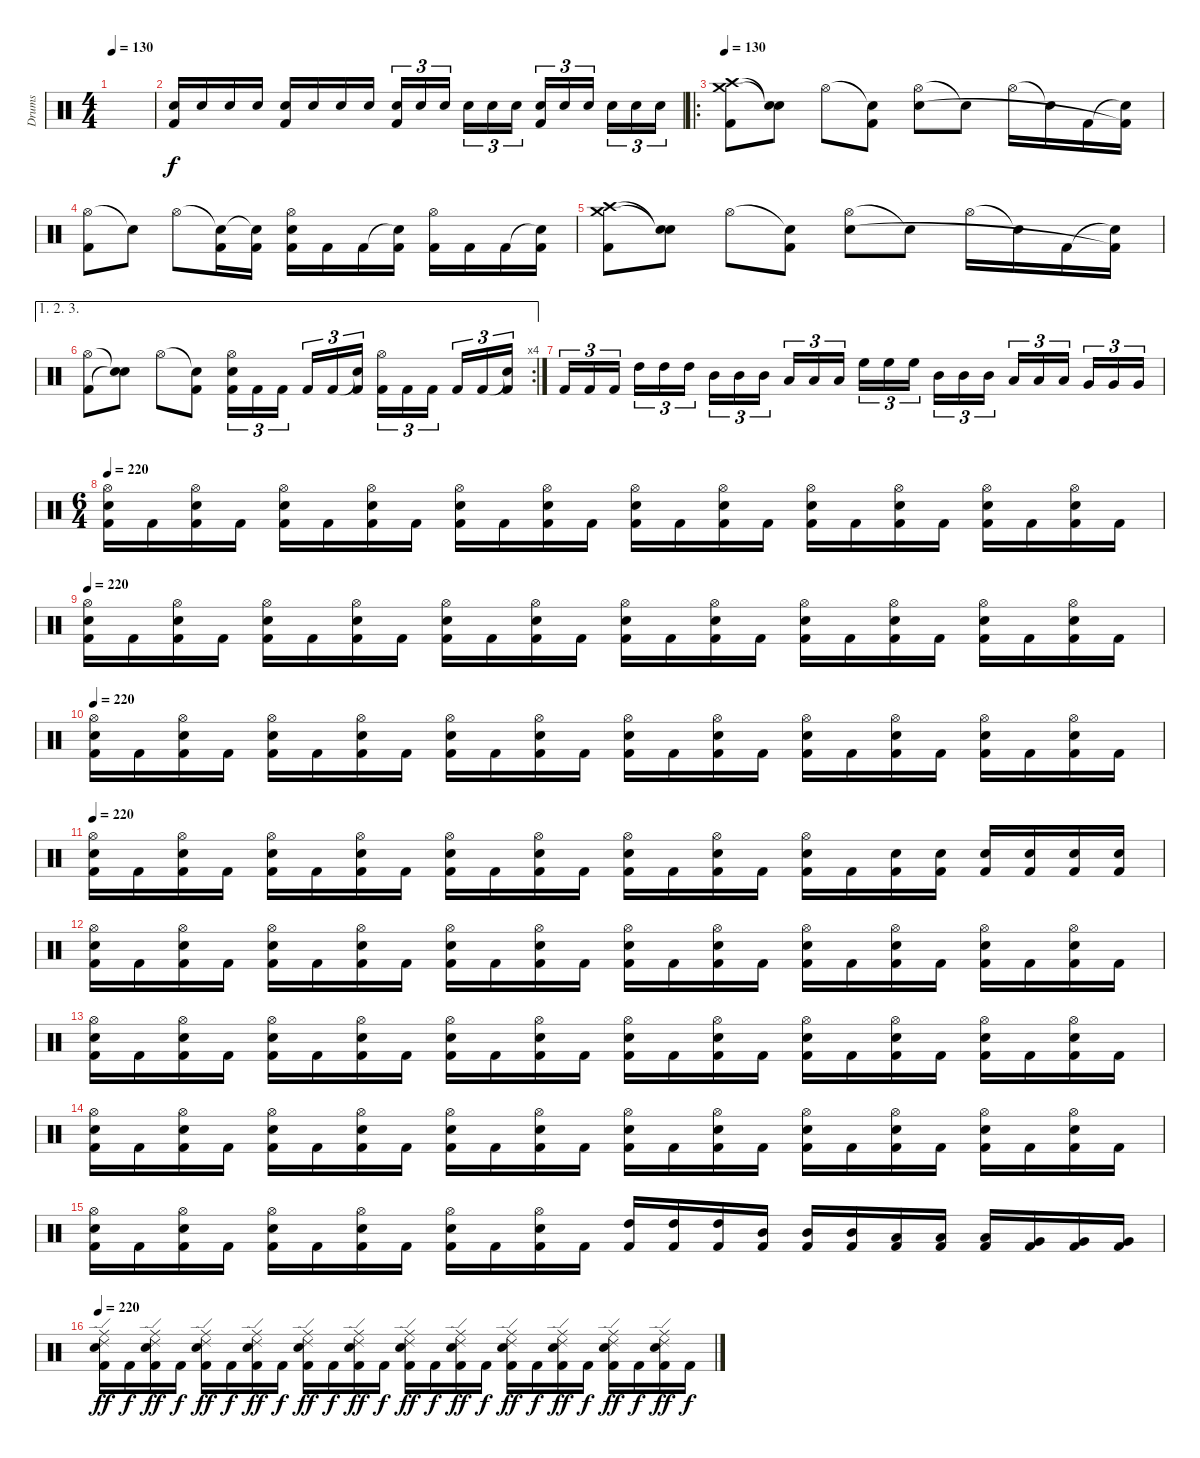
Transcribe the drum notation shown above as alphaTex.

\track ("Drums" "Drums") {instrument percussion}
\staff {score}
\articulation defaults
\ts (4 4)
\tempo 130
\clef neutral
\ks c
|
("Snare (hit) 2" "Kick (hit) 2").16 "Snare (hit) 2".16 "Snare (hit) 2".16 "Snare (hit) 2".16 ("Snare (hit) 2" "Kick (hit) 2").16 "Snare (hit) 2".16 "Snare (hit) 2".16 "Snare (hit) 2".16 ("Snare (hit) 2" "Kick (hit) 2").16{tu (3 2)} "Snare (hit) 2".16{tu (3 2)} "Snare (hit) 2".16{tu (3 2)} "Snare (hit) 2".16{tu (3 2)} "Snare (hit) 2".16{tu (3 2)} "Snare (hit) 2".16{tu (3 2)} ("Snare (hit) 2" "Kick (hit) 2").16{tu (3 2)} "Snare (hit) 2".16{tu (3 2)} "Snare (hit) 2".16{tu (3 2)} "Snare (hit) 2".16{tu (3 2)} "Snare (hit) 2".16{tu (3 2)} "Snare (hit) 2".16{tu (3 2)} |
\ro
\tempo 130
("Crash high (hit)" "Crash medium (hit)" "Kick (hit) 2").8 ("Snare (hit)"{t} "Snare (hit)"{t}).8 "Hi-Hat (open)".8 ("Snare (hit)"{t} "Kick (hit) 2").8 ("Hi-Hat (open)" "Snare (hit) 2").8 "Snare (hit)"{t}.8 "Hi-Hat (open)".16 "Snare (hit)"{t}.16 "Kick (hit) 2".16 ("Snare (hit)"{t} "Kick (hit) 2"{t}).16 |
("Hi-Hat (open)" "Kick (hit) 2").8 "Snare (hit)"{t}.8 "Hi-Hat (open)".8 ("Snare (hit)"{t} "Kick (hit) 2").16 ("Snare (hit)"{t} "Kick (hit) 2").16 ("Hi-Hat (open)" "Snare (hit) 2" "Kick (hit) 2").16 "Kick (hit) 2".16 "Kick (hit) 2".16 ("Snare (hit)"{t} "Kick (hit) 2").16 ("Hi-Hat (open)" "Kick (hit) 2").16 "Kick (hit) 2".16 "Kick (hit) 2".16 ("Snare (hit)"{t} "Kick (hit) 2").16 |
("Crash high (hit)" "Crash medium (hit)" "Kick (hit) 2").8 ("Snare (hit)"{t} "Snare (hit)"{t}).8 "Hi-Hat (open)".8 ("Snare (hit)"{t} "Kick (hit) 2").8 ("Hi-Hat (open)" "Snare (hit) 2").8 "Snare (hit)"{t}.8 "Hi-Hat (open)".16 "Snare (hit)"{t}.16 "Kick (hit) 2".16 ("Snare (hit)"{t} "Kick (hit) 2"{t}).16 |
\ae (1 2 3)
\rc 4
("Hi-Hat (open)" "Kick (hit) 2").8 ("Snare (hit)"{t} "Snare (hit)"{t}).8 "Hi-Hat (open)".8 ("Snare (hit)"{t} "Kick (hit) 2").8 ("Hi-Hat (open)" "Snare (hit) 2" "Kick (hit) 2").16{tu (3 2)} "Kick (hit) 2".16{tu (3 2)} "Kick (hit) 2".16{tu (3 2)} "Kick (hit) 2".16{tu (3 2)} "Kick (hit) 2".16{tu (3 2)} ("Snare (hit)"{t} "Kick (hit) 2").16{tu (3 2)} ("Hi-Hat (open)" "Kick (hit) 2").16{tu (3 2)} "Kick (hit) 2".16{tu (3 2)} "Kick (hit) 2".16{tu (3 2)} "Kick (hit) 2".16{tu (3 2)} "Kick (hit) 2".16{tu (3 2)} ("Snare (hit)"{t} "Kick (hit) 2").16{tu (3 2)} |
"Kick (hit) 2".16{tu (3 2)} "Kick (hit) 2".16{tu (3 2)} "Kick (hit) 2".16{tu (3 2)} "High Tom (hit)".16{tu (3 2)} "High Tom (hit)".16{tu (3 2)} "High Tom (hit)".16{tu (3 2)} "Mid Tom (hit)".16{tu (3 2)} "Mid Tom (hit)".16{tu (3 2)} "Mid Tom (hit)".16{tu (3 2)} "Low Tom (hit)".16{tu (3 2)} "Low Tom (hit)".16{tu (3 2)} "Low Tom (hit)".16{tu (3 2)} "High Floor Tom (hit)".16{tu (3 2)} "High Floor Tom (hit)".16{tu (3 2)} "High Floor Tom (hit)".16{tu (3 2)} "Mid Tom (hit)".16{tu (3 2)} "Mid Tom (hit)".16{tu (3 2)} "Mid Tom (hit)".16{tu (3 2)} "Low Tom (hit)".16{tu (3 2)} "Low Tom (hit)".16{tu (3 2)} "Low Tom (hit)".16{tu (3 2)} "Very Low Tom (hit)".16{tu (3 2)} "Very Low Tom (hit)".16{tu (3 2)} "Very Low Tom (hit)".16{tu (3 2)} |
\ts (6 4)
\tempo 220
("Hi-Hat (open)" "Snare (hit) 2" "Kick (hit) 2").16 "Kick (hit) 2".16 ("Hi-Hat (open)" "Snare (hit) 2" "Kick (hit) 2").16 "Kick (hit) 2".16 ("Hi-Hat (open)" "Snare (hit) 2" "Kick (hit) 2").16 "Kick (hit) 2".16 ("Hi-Hat (open)" "Snare (hit) 2" "Kick (hit) 2").16 "Kick (hit) 2".16 ("Hi-Hat (open)" "Snare (hit) 2" "Kick (hit) 2").16 "Kick (hit) 2".16 ("Hi-Hat (open)" "Snare (hit) 2" "Kick (hit) 2").16 "Kick (hit) 2".16 ("Hi-Hat (open)" "Snare (hit) 2" "Kick (hit) 2").16 "Kick (hit) 2".16 ("Hi-Hat (open)" "Snare (hit) 2" "Kick (hit) 2").16 "Kick (hit) 2".16 ("Hi-Hat (open)" "Snare (hit) 2" "Kick (hit) 2").16 "Kick (hit) 2".16 ("Hi-Hat (open)" "Snare (hit) 2" "Kick (hit) 2").16 "Kick (hit) 2".16 ("Hi-Hat (open)" "Snare (hit) 2" "Kick (hit) 2").16 "Kick (hit) 2".16 ("Hi-Hat (open)" "Snare (hit) 2" "Kick (hit) 2").16 "Kick (hit) 2".16 |
\tempo 220
("Hi-Hat (open)" "Snare (hit) 2" "Kick (hit) 2").16 "Kick (hit) 2".16 ("Hi-Hat (open)" "Snare (hit) 2" "Kick (hit) 2").16 "Kick (hit) 2".16 ("Hi-Hat (open)" "Snare (hit) 2" "Kick (hit) 2").16 "Kick (hit) 2".16 ("Hi-Hat (open)" "Snare (hit) 2" "Kick (hit) 2").16 "Kick (hit) 2".16 ("Hi-Hat (open)" "Snare (hit) 2" "Kick (hit) 2").16 "Kick (hit) 2".16 ("Hi-Hat (open)" "Snare (hit) 2" "Kick (hit) 2").16 "Kick (hit) 2".16 ("Hi-Hat (open)" "Snare (hit) 2" "Kick (hit) 2").16 "Kick (hit) 2".16 ("Hi-Hat (open)" "Snare (hit) 2" "Kick (hit) 2").16 "Kick (hit) 2".16 ("Hi-Hat (open)" "Snare (hit) 2" "Kick (hit) 2").16 "Kick (hit) 2".16 ("Hi-Hat (open)" "Snare (hit) 2" "Kick (hit) 2").16 "Kick (hit) 2".16 ("Hi-Hat (open)" "Snare (hit) 2" "Kick (hit) 2").16 "Kick (hit) 2".16 ("Hi-Hat (open)" "Snare (hit) 2" "Kick (hit) 2").16 "Kick (hit) 2".16 |
\tempo 220
("Hi-Hat (open)" "Snare (hit) 2" "Kick (hit) 2").16 "Kick (hit) 2".16 ("Hi-Hat (open)" "Snare (hit) 2" "Kick (hit) 2").16 "Kick (hit) 2".16 ("Hi-Hat (open)" "Snare (hit) 2" "Kick (hit) 2").16 "Kick (hit) 2".16 ("Hi-Hat (open)" "Snare (hit) 2" "Kick (hit) 2").16 "Kick (hit) 2".16 ("Hi-Hat (open)" "Snare (hit) 2" "Kick (hit) 2").16 "Kick (hit) 2".16 ("Hi-Hat (open)" "Snare (hit) 2" "Kick (hit) 2").16 "Kick (hit) 2".16 ("Hi-Hat (open)" "Snare (hit) 2" "Kick (hit) 2").16 "Kick (hit) 2".16 ("Hi-Hat (open)" "Snare (hit) 2" "Kick (hit) 2").16 "Kick (hit) 2".16 ("Hi-Hat (open)" "Snare (hit) 2" "Kick (hit) 2").16 "Kick (hit) 2".16 ("Hi-Hat (open)" "Snare (hit) 2" "Kick (hit) 2").16 "Kick (hit) 2".16 ("Hi-Hat (open)" "Snare (hit) 2" "Kick (hit) 2").16 "Kick (hit) 2".16 ("Hi-Hat (open)" "Snare (hit) 2" "Kick (hit) 2").16 "Kick (hit) 2".16 |
\tempo 220
("Hi-Hat (open)" "Snare (hit) 2" "Kick (hit) 2").16 "Kick (hit) 2".16 ("Hi-Hat (open)" "Snare (hit) 2" "Kick (hit) 2").16 "Kick (hit) 2".16 ("Hi-Hat (open)" "Snare (hit) 2" "Kick (hit) 2").16 "Kick (hit) 2".16 ("Hi-Hat (open)" "Snare (hit) 2" "Kick (hit) 2").16 "Kick (hit) 2".16 ("Hi-Hat (open)" "Snare (hit) 2" "Kick (hit) 2").16 "Kick (hit) 2".16 ("Hi-Hat (open)" "Snare (hit) 2" "Kick (hit) 2").16 "Kick (hit) 2".16 ("Hi-Hat (open)" "Snare (hit) 2" "Kick (hit) 2").16 "Kick (hit) 2".16 ("Hi-Hat (open)" "Snare (hit) 2" "Kick (hit) 2").16 "Kick (hit) 2".16 ("Hi-Hat (open)" "Snare (hit) 2" "Kick (hit) 2").16 "Kick (hit) 2".16 ("Snare (hit) 2" "Kick (hit) 2").16 ("Snare (hit) 2" "Kick (hit) 2").16 ("Snare (hit) 2" "Kick (hit) 2").16 ("Snare (hit) 2" "Kick (hit) 2").16 ("Snare (hit) 2" "Kick (hit) 2").16 ("Snare (hit) 2" "Kick (hit) 2").16 |
("Hi-Hat (open)" "Snare (hit) 2" "Kick (hit) 2").16 "Kick (hit) 2".16 ("Hi-Hat (open)" "Snare (hit) 2" "Kick (hit) 2").16 "Kick (hit) 2".16 ("Hi-Hat (open)" "Snare (hit) 2" "Kick (hit) 2").16 "Kick (hit) 2".16 ("Hi-Hat (open)" "Snare (hit) 2" "Kick (hit) 2").16 "Kick (hit) 2".16 ("Hi-Hat (open)" "Snare (hit) 2" "Kick (hit) 2").16 "Kick (hit) 2".16 ("Hi-Hat (open)" "Snare (hit) 2" "Kick (hit) 2").16 "Kick (hit) 2".16 ("Hi-Hat (open)" "Snare (hit) 2" "Kick (hit) 2").16 "Kick (hit) 2".16 ("Hi-Hat (open)" "Snare (hit) 2" "Kick (hit) 2").16 "Kick (hit) 2".16 ("Hi-Hat (open)" "Snare (hit) 2" "Kick (hit) 2").16 "Kick (hit) 2".16 ("Hi-Hat (open)" "Snare (hit) 2" "Kick (hit) 2").16 "Kick (hit) 2".16 ("Hi-Hat (open)" "Snare (hit) 2" "Kick (hit) 2").16 "Kick (hit) 2".16 ("Hi-Hat (open)" "Snare (hit) 2" "Kick (hit) 2").16 "Kick (hit) 2".16 |
("Hi-Hat (open)" "Snare (hit) 2" "Kick (hit) 2").16 "Kick (hit) 2".16 ("Hi-Hat (open)" "Snare (hit) 2" "Kick (hit) 2").16 "Kick (hit) 2".16 ("Hi-Hat (open)" "Snare (hit) 2" "Kick (hit) 2").16 "Kick (hit) 2".16 ("Hi-Hat (open)" "Snare (hit) 2" "Kick (hit) 2").16 "Kick (hit) 2".16 ("Hi-Hat (open)" "Snare (hit) 2" "Kick (hit) 2").16 "Kick (hit) 2".16 ("Hi-Hat (open)" "Snare (hit) 2" "Kick (hit) 2").16 "Kick (hit) 2".16 ("Hi-Hat (open)" "Snare (hit) 2" "Kick (hit) 2").16 "Kick (hit) 2".16 ("Hi-Hat (open)" "Snare (hit) 2" "Kick (hit) 2").16 "Kick (hit) 2".16 ("Hi-Hat (open)" "Snare (hit) 2" "Kick (hit) 2").16 "Kick (hit) 2".16 ("Hi-Hat (open)" "Snare (hit) 2" "Kick (hit) 2").16 "Kick (hit) 2".16 ("Hi-Hat (open)" "Snare (hit) 2" "Kick (hit) 2").16 "Kick (hit) 2".16 ("Hi-Hat (open)" "Snare (hit) 2" "Kick (hit) 2").16 "Kick (hit) 2".16 |
("Hi-Hat (open)" "Snare (hit) 2" "Kick (hit) 2").16 "Kick (hit) 2".16 ("Hi-Hat (open)" "Snare (hit) 2" "Kick (hit) 2").16 "Kick (hit) 2".16 ("Hi-Hat (open)" "Snare (hit) 2" "Kick (hit) 2").16 "Kick (hit) 2".16 ("Hi-Hat (open)" "Snare (hit) 2" "Kick (hit) 2").16 "Kick (hit) 2".16 ("Hi-Hat (open)" "Snare (hit) 2" "Kick (hit) 2").16 "Kick (hit) 2".16 ("Hi-Hat (open)" "Snare (hit) 2" "Kick (hit) 2").16 "Kick (hit) 2".16 ("Hi-Hat (open)" "Snare (hit) 2" "Kick (hit) 2").16 "Kick (hit) 2".16 ("Hi-Hat (open)" "Snare (hit) 2" "Kick (hit) 2").16 "Kick (hit) 2".16 ("Hi-Hat (open)" "Snare (hit) 2" "Kick (hit) 2").16 "Kick (hit) 2".16 ("Hi-Hat (open)" "Snare (hit) 2" "Kick (hit) 2").16 "Kick (hit) 2".16 ("Hi-Hat (open)" "Snare (hit) 2" "Kick (hit) 2").16 "Kick (hit) 2".16 ("Hi-Hat (open)" "Snare (hit) 2" "Kick (hit) 2").16 "Kick (hit) 2".16 |
("Hi-Hat (open)" "Snare (hit) 2" "Kick (hit) 2").16 "Kick (hit) 2".16 ("Hi-Hat (open)" "Snare (hit) 2" "Kick (hit) 2").16 "Kick (hit) 2".16 ("Hi-Hat (open)" "Snare (hit) 2" "Kick (hit) 2").16 "Kick (hit) 2".16 ("Hi-Hat (open)" "Snare (hit) 2" "Kick (hit) 2").16 "Kick (hit) 2".16 ("Hi-Hat (open)" "Snare (hit) 2" "Kick (hit) 2").16 "Kick (hit) 2".16 ("Hi-Hat (open)" "Snare (hit) 2" "Kick (hit) 2").16 "Kick (hit) 2".16 ("High Tom (hit)" "Kick (hit) 2").16 ("High Tom (hit)" "Kick (hit) 2").16 ("High Tom (hit)" "Kick (hit) 2").16 ("Mid Tom (hit)" "Kick (hit) 2").16 ("Mid Tom (hit)" "Kick (hit) 2").16 ("Mid Tom (hit)" "Kick (hit) 2").16 ("Low Tom (hit)" "Kick (hit) 2").16 ("Low Tom (hit)" "Kick (hit) 2").16 ("Low Tom (hit)" "Kick (hit) 2").16 ("Very Low Tom (hit)" "Kick (hit) 2").16 ("Very Low Tom (hit)" "Kick (hit) 2").16 ("Very Low Tom (hit)" "Kick (hit) 2").16 |
\tempo 220
("Ride (edge) 2" "Ride (middle)" "Snare (hit) 2" "Kick (hit) 2").16{dy ff} "Kick (hit) 2".16{dy f} ("Ride (edge) 2" "Ride (middle)" "Snare (hit) 2" "Kick (hit) 2").16{dy ff} "Kick (hit) 2".16{dy f} ("Ride (edge) 2" "Ride (middle)" "Snare (hit) 2" "Kick (hit) 2").16{dy ff} "Kick (hit) 2".16{dy f} ("Ride (edge) 2" "Ride (middle)" "Snare (hit) 2" "Kick (hit) 2").16{dy ff} "Kick (hit) 2".16{dy f} ("Ride (edge) 2" "Ride (middle)" "Snare (hit) 2" "Kick (hit) 2").16{dy ff} "Kick (hit) 2".16{dy f} ("Ride (edge) 2" "Ride (middle)" "Snare (hit) 2" "Kick (hit) 2").16{dy ff} "Kick (hit) 2".16{dy f} ("Ride (edge) 2" "Ride (middle)" "Snare (hit) 2" "Kick (hit) 2").16{dy ff} "Kick (hit) 2".16{dy f} ("Ride (edge) 2" "Ride (middle)" "Snare (hit) 2" "Kick (hit) 2").16{dy ff} "Kick (hit) 2".16{dy f} ("Ride (edge) 2" "Ride (middle)" "Snare (hit) 2" "Kick (hit) 2").16{dy ff} "Kick (hit) 2".16{dy f} ("Ride (edge) 2" "Ride (middle)" "Snare (hit) 2" "Kick (hit) 2").16{dy ff} "Kick (hit) 2".16{dy f} ("Ride (edge) 2" "Ride (middle)" "Snare (hit) 2" "Kick (hit) 2").16{dy ff} "Kick (hit) 2".16{dy f} ("Ride (edge) 2" "Ride (middle)" "Snare (hit) 2" "Kick (hit) 2").16{dy ff} "Kick (hit) 2".16{dy f}
